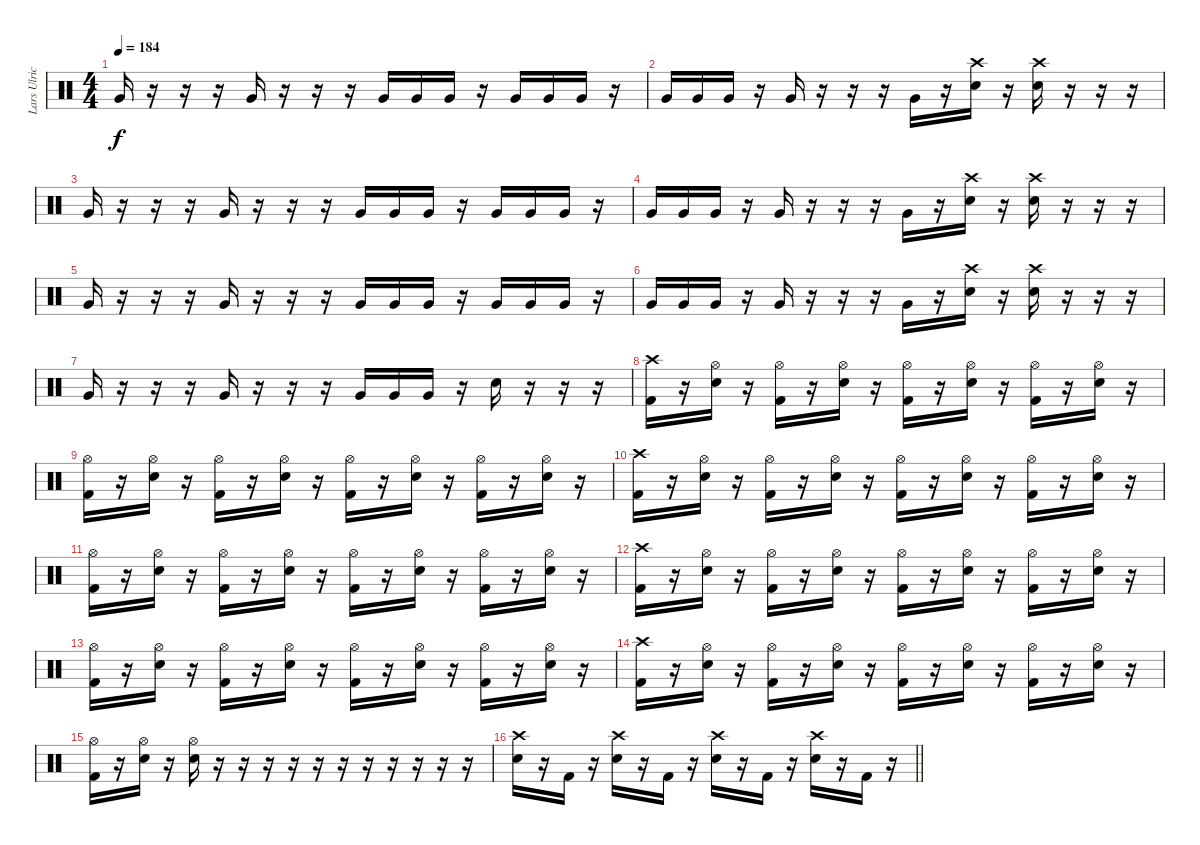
\track ("Lars Ulrich" "Lars Ulric") {instrument percussion}
\staff {score}
\articulation defaults
\ts (4 4)
\tempo 184
\clef neutral
\ks c "Very Low Tom (hit)".16{dy f}
r.16 r.16 r.16 "Very Low Tom (hit)".16 r.16 r.16 r.16 "Very Low Tom (hit)".16 "Very Low Tom (hit)".16 "Very Low Tom (hit)".16 r.16 "Very Low Tom (hit)".16 "Very Low Tom (hit)".16 "Very Low Tom (hit)".16 r.16 |
"Very Low Tom (hit)".16 "Very Low Tom (hit)".16 "Very Low Tom (hit)".16 r.16 "Very Low Tom (hit)".16 r.16 r.16 r.16 "Very Low Tom (hit)".16 r.16 ("Crash high (hit)" "Electric Snare (hit)").16 r.16 ("Crash high (hit)" "Electric Snare (hit)").16 r.16 r.16 r.16 |
"Very Low Tom (hit)".16 r.16 r.16 r.16 "Very Low Tom (hit)".16 r.16 r.16 r.16 "Very Low Tom (hit)".16 "Very Low Tom (hit)".16 "Very Low Tom (hit)".16 r.16 "Very Low Tom (hit)".16 "Very Low Tom (hit)".16 "Very Low Tom (hit)".16 r.16 |
"Very Low Tom (hit)".16 "Very Low Tom (hit)".16 "Very Low Tom (hit)".16 r.16 "Very Low Tom (hit)".16 r.16 r.16 r.16 "Very Low Tom (hit)".16 r.16 ("Crash high (hit)" "Electric Snare (hit)").16 r.16 ("Crash high (hit)" "Electric Snare (hit)").16 r.16 r.16 r.16 |
"Very Low Tom (hit)".16 r.16 r.16 r.16 "Very Low Tom (hit)".16 r.16 r.16 r.16 "Very Low Tom (hit)".16 "Very Low Tom (hit)".16 "Very Low Tom (hit)".16 r.16 "Very Low Tom (hit)".16 "Very Low Tom (hit)".16 "Very Low Tom (hit)".16 r.16 |
"Very Low Tom (hit)".16 "Very Low Tom (hit)".16 "Very Low Tom (hit)".16 r.16 "Very Low Tom (hit)".16 r.16 r.16 r.16 "Very Low Tom (hit)".16 r.16 ("Crash high (hit)" "Electric Snare (hit)").16 r.16 ("Crash high (hit)" "Electric Snare (hit)").16 r.16 r.16 r.16 |
"Very Low Tom (hit)".16 r.16 r.16 r.16 "Very Low Tom (hit)".16 r.16 r.16 r.16 "Very Low Tom (hit)".16 "Very Low Tom (hit)".16 "Very Low Tom (hit)".16 r.16 "Electric Snare (hit)".16 r.16 r.16 r.16 |
("Crash high (hit)" "Kick (hit) 2").16 r.16 ("Electric Snare (hit)" "Hi-Hat (open)").16 r.16 ("Hi-Hat (open)" "Kick (hit) 2").16 r.16 ("Electric Snare (hit)" "Hi-Hat (open)").16 r.16 ("Hi-Hat (open)" "Kick (hit) 2").16 r.16 ("Electric Snare (hit)" "Hi-Hat (open)").16 r.16 ("Hi-Hat (open)" "Kick (hit) 2").16 r.16 ("Electric Snare (hit)" "Hi-Hat (open)").16 r.16 |
("Hi-Hat (open)" "Kick (hit) 2").16 r.16 ("Electric Snare (hit)" "Hi-Hat (open)").16 r.16 ("Hi-Hat (open)" "Kick (hit) 2").16 r.16 ("Electric Snare (hit)" "Hi-Hat (open)").16 r.16 ("Hi-Hat (open)" "Kick (hit) 2").16 r.16 ("Electric Snare (hit)" "Hi-Hat (open)").16 r.16 ("Hi-Hat (open)" "Kick (hit) 2").16 r.16 ("Electric Snare (hit)" "Hi-Hat (open)").16 r.16 |
("Crash high (hit)" "Kick (hit) 2").16 r.16 ("Electric Snare (hit)" "Hi-Hat (open)").16 r.16 ("Hi-Hat (open)" "Kick (hit) 2").16 r.16 ("Electric Snare (hit)" "Hi-Hat (open)").16 r.16 ("Hi-Hat (open)" "Kick (hit) 2").16 r.16 ("Electric Snare (hit)" "Hi-Hat (open)").16 r.16 ("Hi-Hat (open)" "Kick (hit) 2").16 r.16 ("Electric Snare (hit)" "Hi-Hat (open)").16 r.16 |
("Hi-Hat (open)" "Kick (hit) 2").16 r.16 ("Electric Snare (hit)" "Hi-Hat (open)").16 r.16 ("Hi-Hat (open)" "Kick (hit) 2").16 r.16 ("Electric Snare (hit)" "Hi-Hat (open)").16 r.16 ("Hi-Hat (open)" "Kick (hit) 2").16 r.16 ("Electric Snare (hit)" "Hi-Hat (open)").16 r.16 ("Hi-Hat (open)" "Kick (hit) 2").16 r.16 ("Electric Snare (hit)" "Hi-Hat (open)").16 r.16 |
("Crash high (hit)" "Kick (hit) 2").16 r.16 ("Electric Snare (hit)" "Hi-Hat (open)").16 r.16 ("Hi-Hat (open)" "Kick (hit) 2").16 r.16 ("Electric Snare (hit)" "Hi-Hat (open)").16 r.16 ("Hi-Hat (open)" "Kick (hit) 2").16 r.16 ("Electric Snare (hit)" "Hi-Hat (open)").16 r.16 ("Hi-Hat (open)" "Kick (hit) 2").16 r.16 ("Electric Snare (hit)" "Hi-Hat (open)").16 r.16 |
("Hi-Hat (open)" "Kick (hit) 2").16 r.16 ("Electric Snare (hit)" "Hi-Hat (open)").16 r.16 ("Hi-Hat (open)" "Kick (hit) 2").16 r.16 ("Electric Snare (hit)" "Hi-Hat (open)").16 r.16 ("Hi-Hat (open)" "Kick (hit) 2").16 r.16 ("Electric Snare (hit)" "Hi-Hat (open)").16 r.16 ("Hi-Hat (open)" "Kick (hit) 2").16 r.16 ("Electric Snare (hit)" "Hi-Hat (open)").16 r.16 |
("Crash high (hit)" "Kick (hit) 2").16 r.16 ("Electric Snare (hit)" "Hi-Hat (open)").16 r.16 ("Hi-Hat (open)" "Kick (hit) 2").16 r.16 ("Electric Snare (hit)" "Hi-Hat (open)").16 r.16 ("Hi-Hat (open)" "Kick (hit) 2").16 r.16 ("Electric Snare (hit)" "Hi-Hat (open)").16 r.16 ("Hi-Hat (open)" "Kick (hit) 2").16 r.16 ("Electric Snare (hit)" "Hi-Hat (open)").16 r.16 |
("Hi-Hat (open)" "Kick (hit) 2").16 r.16 ("Electric Snare (hit)" "Hi-Hat (open)").16 r.16 ("Electric Snare (hit)" "Hi-Hat (open)").16 r.16 r.16 r.16 r.16 r.16 r.16 r.16 r.16 r.16 r.16 r.16 |
\barLineRight lightlight
("Crash high (hit)" "Electric Snare (hit)").16 r.16 "Kick (hit) 2".16 r.16 ("Crash high (hit)" "Electric Snare (hit)").16 r.16 "Kick (hit) 2".16 r.16 ("Crash high (hit)" "Electric Snare (hit)").16 r.16 "Kick (hit) 2".16 r.16 ("Crash high (hit)" "Electric Snare (hit)").16 r.16 "Kick (hit) 2".16 r.16
